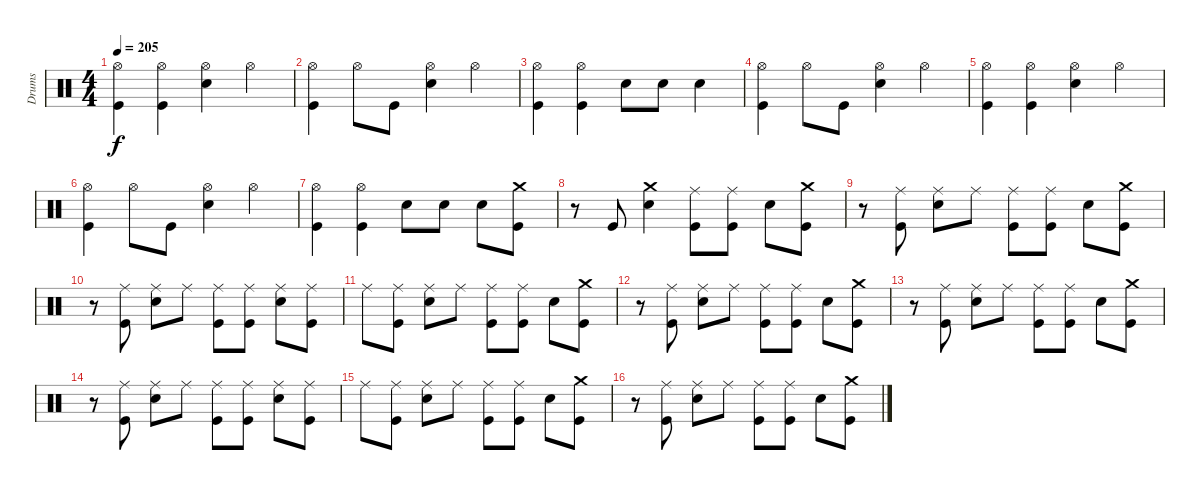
\track ("Drums" "Drums") {instrument percussion}
\staff {score}
\articulation defaults
\ts (4 4)
\tempo 205
\clef neutral
\ks c
("Hi-Hat (open)" "Kick (hit)").4{dy f} ("Hi-Hat (open)" "Kick (hit)").4 ("Hi-Hat (open)" "Electric Snare (hit)").4 "Hi-Hat (open)".4 |
("Hi-Hat (open)" "Kick (hit)").4 "Hi-Hat (open)".8 "Kick (hit)".8 ("Hi-Hat (open)" "Electric Snare (hit)").4 "Hi-Hat (open)".4 |
("Hi-Hat (open)" "Kick (hit)").4 ("Hi-Hat (open)" "Kick (hit)").4 "Electric Snare (hit)".8 "Electric Snare (hit)".8 "Electric Snare (hit)".4 |
("Hi-Hat (open)" "Kick (hit)").4 "Hi-Hat (open)".8 "Kick (hit)".8 ("Hi-Hat (open)" "Electric Snare (hit)").4 "Hi-Hat (open)".4 |
("Hi-Hat (open)" "Kick (hit)").4 ("Hi-Hat (open)" "Kick (hit)").4 ("Hi-Hat (open)" "Electric Snare (hit)").4 "Hi-Hat (open)".4 |
("Hi-Hat (open)" "Kick (hit)").4 "Hi-Hat (open)".8 "Kick (hit)".8 ("Hi-Hat (open)" "Electric Snare (hit)").4 "Hi-Hat (open)".4 |
("Hi-Hat (open)" "Kick (hit)").4 ("Hi-Hat (open)" "Kick (hit)").4 "Electric Snare (hit)".8 "Electric Snare (hit)".8 "Electric Snare (hit)".8 ("Crash medium (hit)" "Kick (hit)").8 |
r.8 "Kick (hit)".8 ("Crash medium (hit)" "Electric Snare (hit)").4 ("Ride (middle)" "Kick (hit)").8 ("Ride (middle)" "Kick (hit)").8 "Electric Snare (hit)".8 ("Crash medium (hit)" "Kick (hit)").8 |
r.8 ("Ride (middle)" "Kick (hit)").8 ("Ride (middle)" "Electric Snare (hit)").8 "Ride (middle)".8 ("Ride (middle)" "Kick (hit)").8 ("Ride (middle)" "Kick (hit)").8 "Electric Snare (hit)".8 ("Crash medium (hit)" "Kick (hit)").8 |
r.8 ("Ride (middle)" "Kick (hit)").8 ("Ride (middle)" "Electric Snare (hit)").8 "Ride (middle)".8 ("Ride (middle)" "Kick (hit)").8 ("Ride (middle)" "Kick (hit)").8 ("Ride (middle)" "Electric Snare (hit)").8 ("Ride (middle)" "Kick (hit)").8 |
"Ride (middle)".8 ("Ride (middle)" "Kick (hit)").8 ("Ride (middle)" "Electric Snare (hit)").8 "Ride (middle)".8 ("Ride (middle)" "Kick (hit)").8 ("Ride (middle)" "Kick (hit)").8 "Electric Snare (hit)".8 ("Crash medium (hit)" "Kick (hit)").8 |
r.8 ("Ride (middle)" "Kick (hit)").8 ("Ride (middle)" "Electric Snare (hit)").8 "Ride (middle)".8 ("Ride (middle)" "Kick (hit)").8 ("Ride (middle)" "Kick (hit)").8 "Electric Snare (hit)".8 ("Crash medium (hit)" "Kick (hit)").8 |
r.8 ("Ride (middle)" "Kick (hit)").8 ("Ride (middle)" "Electric Snare (hit)").8 "Ride (middle)".8 ("Ride (middle)" "Kick (hit)").8 ("Ride (middle)" "Kick (hit)").8 "Electric Snare (hit)".8 ("Crash medium (hit)" "Kick (hit)").8 |
r.8 ("Ride (middle)" "Kick (hit)").8 ("Ride (middle)" "Electric Snare (hit)").8 "Ride (middle)".8 ("Ride (middle)" "Kick (hit)").8 ("Ride (middle)" "Kick (hit)").8 ("Ride (middle)" "Electric Snare (hit)").8 ("Ride (middle)" "Kick (hit)").8 |
"Ride (middle)".8 ("Ride (middle)" "Kick (hit)").8 ("Ride (middle)" "Electric Snare (hit)").8 "Ride (middle)".8 ("Ride (middle)" "Kick (hit)").8 ("Ride (middle)" "Kick (hit)").8 "Electric Snare (hit)".8 ("Crash medium (hit)" "Kick (hit)").8 |
r.8 ("Ride (middle)" "Kick (hit)").8 ("Ride (middle)" "Electric Snare (hit)").8 "Ride (middle)".8 ("Ride (middle)" "Kick (hit)").8 ("Ride (middle)" "Kick (hit)").8 "Electric Snare (hit)".8 ("Crash medium (hit)" "Kick (hit)").8
